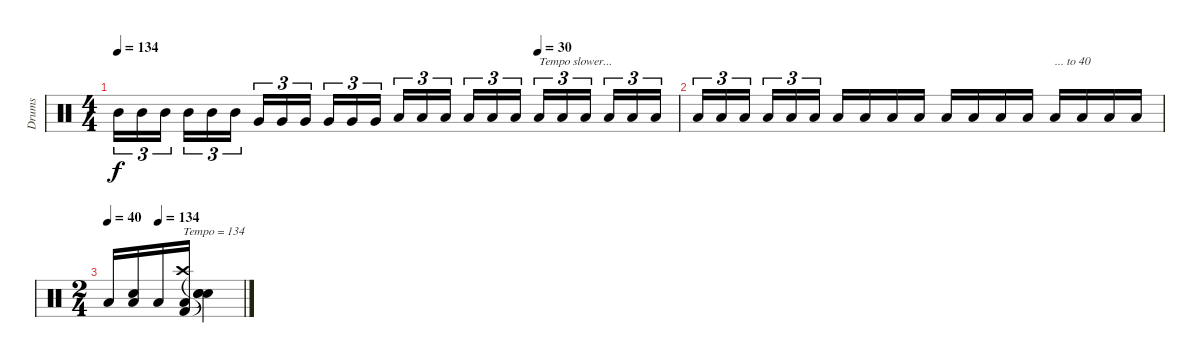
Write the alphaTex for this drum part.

\track ("Drums" "Drums") {instrument percussion}
\staff {score}
\articulation defaults
\ts (4 4)
\tempo 134
\tempo (30 0.75)
\clef neutral
\ks c "Mid Tom (hit)".16{tu (3 2) dy f} "Mid Tom (hit)".16{tu (3 2)} "Mid Tom (hit)".16{tu (3 2)} "Mid Tom (hit)".16{tu (3 2)} "Mid Tom (hit)".16{tu (3 2)} "Mid Tom (hit)".16{tu (3 2)} "Very Low Tom (hit)".16{tu (3 2)} "Very Low Tom (hit)".16{tu (3 2)} "Very Low Tom (hit)".16{tu (3 2)} "Very Low Tom (hit)".16{tu (3 2)} "Very Low Tom (hit)".16{tu (3 2)} "Very Low Tom (hit)".16{tu (3 2)} "Low Tom (hit)".16{tu (3 2)} "Low Tom (hit)".16{tu (3 2)} "Low Tom (hit)".16{tu (3 2)} "Low Tom (hit)".16{tu (3 2)} "Low Tom (hit)".16{tu (3 2)} "Low Tom (hit)".16{tu (3 2)} "Low Floor Tom (hit)".16{tu (3 2) txt "Tempo slower..."} "Low Floor Tom (hit)".16{tu (3 2)} "Low Floor Tom (hit)".16{tu (3 2)} "Low Floor Tom (hit)".16{tu (3 2)} "Low Floor Tom (hit)".16{tu (3 2)} "Low Floor Tom (hit)".16{tu (3 2)}
|
"Low Floor Tom (hit)".16{tu (3 2)} "Low Floor Tom (hit)".16{tu (3 2)} "Low Floor Tom (hit)".16{tu (3 2)} "Low Floor Tom (hit)".16{tu (3 2)} "Low Floor Tom (hit)".16{tu (3 2)} "Low Floor Tom (hit)".16{tu (3 2)} "Low Floor Tom (hit)".16 "Low Floor Tom (hit)".16 "Low Floor Tom (hit)".16 "Low Floor Tom (hit)".16 "Low Floor Tom (hit)".16 "Low Floor Tom (hit)".16 "Low Floor Tom (hit)".16 "Low Floor Tom (hit)".16 "Low Floor Tom (hit)".16{txt "... to 40"} "Low Floor Tom (hit)".16 "Low Floor Tom (hit)".16 "Low Floor Tom (hit)".16 |
\ts (2 4)
\tempo 40
\tempo (134 0.375)
"Low Floor Tom (hit)".16 ("Electric Snare (hit)" "Low Floor Tom (hit)").16 "Low Floor Tom (hit)".16 ("Crash high (hit)" "Low Floor Tom (hit)" "Kick (hit) 2").16{txt "Tempo = 134"} ("Snare (hit)"{t} "Snare (hit)"{t} "Snare (hit)"{t}).4
